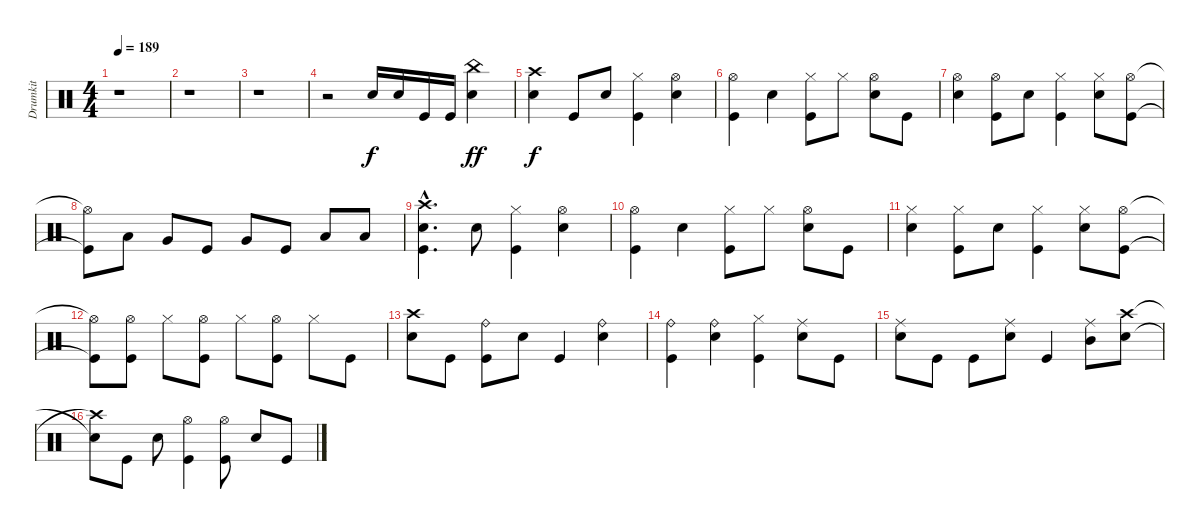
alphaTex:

\track ("Drumkit" "Drumkit") {instrument percussion}
\staff {score}
\articulation defaults
\ts (4 4)
\tempo 189
\clef neutral
\ks c
r.1{dy mf} |
r.1 |
r.1 |
r.2 "Snare (hit) 2".16{dy f} "Snare (hit) 2".16 "Kick (hit)".16 "Kick (hit)".16 ("Snare (hit) 2" "China (hit)").4{dy ff} |
("Snare (hit) 2" "Crash high (hit)").4{dy f} "Kick (hit)".8 "Snare (hit) 2".8 ("Kick (hit)" "Hi-Hat (closed)").4 ("Snare (hit) 2" "Hi-Hat (open)").4 |
("Kick (hit)" "Hi-Hat (open)").4 "Snare (hit) 2".4 ("Kick (hit)" "Hi-Hat (closed)").8 "Hi-Hat (closed)".8 ("Snare (hit) 2" "Hi-Hat (open)").8 "Kick (hit)".8 |
("Snare (hit) 2" "Hi-Hat (open)").4 ("Kick (hit)" "Hi-Hat (open)").8 "Snare (hit) 2".8 ("Kick (hit)" "Hi-Hat (closed)").4 ("Snare (hit) 2" "Hi-Hat (closed)").8 ("Kick (hit)" "Hi-Hat (open)").8 |
("Kick (hit)"{t} "Hi-Hat (open)"{t}).8 "Low Tom (hit)".8 "Very Low Tom (hit)".8 "Kick (hit)".8 "Very Low Tom (hit)".8 "Kick (hit)".8 "Low Floor Tom (hit)".8 "Low Floor Tom (hit)".8 |
("Snare (hit) 2"{hac} "Crash high (hit)"{hac} "Kick (hit)"{hac}).4{d} "Snare (hit) 2".8 ("Kick (hit)" "Hi-Hat (closed)").4 ("Snare (hit) 2" "Hi-Hat (open)").4 |
("Kick (hit)" "Hi-Hat (open)").4 "Snare (hit) 2".4 ("Kick (hit)" "Hi-Hat (closed)").8 "Hi-Hat (closed)".8 ("Snare (hit) 2" "Hi-Hat (open)").8 "Kick (hit)".8 |
("Snare (hit) 2" "Hi-Hat (closed)").4 ("Kick (hit)" "Hi-Hat (closed)").8 "Snare (hit) 2".8 ("Kick (hit)" "Hi-Hat (closed)").4 ("Snare (hit) 2" "Hi-Hat (closed)").8 ("Kick (hit)" "Hi-Hat (open)").8 |
("Kick (hit)"{t} "Hi-Hat (open)"{t}).8 ("Kick (hit)" "Hi-Hat (open)").8 "Hi-Hat (closed)".8 ("Kick (hit)" "Hi-Hat (open)").8 "Hi-Hat (closed)".8 ("Kick (hit)" "Hi-Hat (open)").8 "Hi-Hat (closed)".8 "Kick (hit)".8 |
("Snare (hit) 2" "Crash high (hit)").8 "Kick (hit)".8 ("Kick (hit)" "Ride (bell)").8 "Snare (hit) 2".8 "Kick (hit)".4 ("Snare (hit) 2" "Ride (bell)").4 |
("Kick (hit)" "Ride (bell)").4 ("Snare (hit) 2" "Ride (bell)").4 ("Kick (hit)" "Hi-Hat (closed)").4 ("Snare (hit) 2" "Ride (middle)").8 "Kick (hit)".8 |
("Snare (hit) 2" "Ride (middle)").8 "Kick (hit)".8 "Kick (hit)".8 ("Snare (hit) 2" "Ride (middle)").8 "Kick (hit)".4 ("Mid Tom (hit)" "Ride (middle)").8 ("Crash high (hit)" "Snare (hit) 2").8 |
("Snare (hit) 2"{t} "Crash high (hit)"{t}).8 "Kick (hit)".8 "Snare (hit) 2".8 ("Kick (hit)" "Hi-Hat (open)").4 ("Hi-Hat (open)" "Kick (hit)").8 "Snare (hit) 2".8 "Kick (hit)".8
